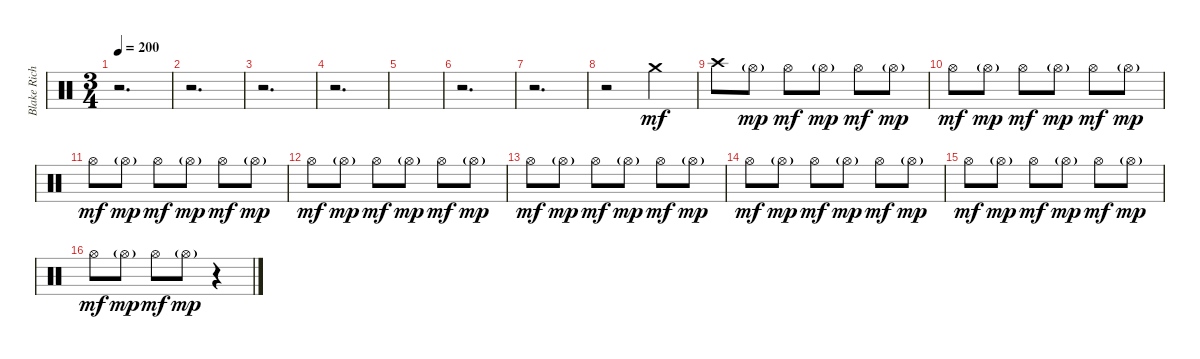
\track ("Blake Richardson Drums" "Blake Rich") {instrument percussion}
\staff {score}
\articulation defaults
\ts (3 4)
\tempo 200
\clef neutral
\ks c
r.2{d dy mf volume 8} |
r.2{d} |
r.2{d} |
r.2{d} |
|
r.2{d} |
r.2{d} |
r.2 "Crash medium (hit)".4 |
"Crash high (hit)".8 "Hi-Hat (open)"{g}.8{dy mp} "Hi-Hat (open)".8{dy mf} "Hi-Hat (open)"{g}.8{dy mp} "Hi-Hat (open)".8{dy mf} "Hi-Hat (open)"{g}.8{dy mp} |
"Hi-Hat (open)".8{dy mf} "Hi-Hat (open)"{g}.8{dy mp} "Hi-Hat (open)".8{dy mf} "Hi-Hat (open)"{g}.8{dy mp} "Hi-Hat (open)".8{dy mf} "Hi-Hat (open)"{g}.8{dy mp} |
"Hi-Hat (open)".8{dy mf} "Hi-Hat (open)"{g}.8{dy mp} "Hi-Hat (open)".8{dy mf} "Hi-Hat (open)"{g}.8{dy mp} "Hi-Hat (open)".8{dy mf} "Hi-Hat (open)"{g}.8{dy mp} |
"Hi-Hat (open)".8{dy mf} "Hi-Hat (open)"{g}.8{dy mp} "Hi-Hat (open)".8{dy mf} "Hi-Hat (open)"{g}.8{dy mp} "Hi-Hat (open)".8{dy mf} "Hi-Hat (open)"{g}.8{dy mp} |
"Hi-Hat (open)".8{dy mf} "Hi-Hat (open)"{g}.8{dy mp} "Hi-Hat (open)".8{dy mf} "Hi-Hat (open)"{g}.8{dy mp} "Hi-Hat (open)".8{dy mf} "Hi-Hat (open)"{g}.8{dy mp} |
"Hi-Hat (open)".8{dy mf} "Hi-Hat (open)"{g}.8{dy mp} "Hi-Hat (open)".8{dy mf} "Hi-Hat (open)"{g}.8{dy mp} "Hi-Hat (open)".8{dy mf} "Hi-Hat (open)"{g}.8{dy mp} |
"Hi-Hat (open)".8{dy mf} "Hi-Hat (open)"{g}.8{dy mp} "Hi-Hat (open)".8{dy mf} "Hi-Hat (open)"{g}.8{dy mp} "Hi-Hat (open)".8{dy mf} "Hi-Hat (open)"{g}.8{dy mp} |
"Hi-Hat (open)".8{dy mf} "Hi-Hat (open)"{g}.8{dy mp} "Hi-Hat (open)".8{dy mf} "Hi-Hat (open)"{g}.8{dy mp} r.4
